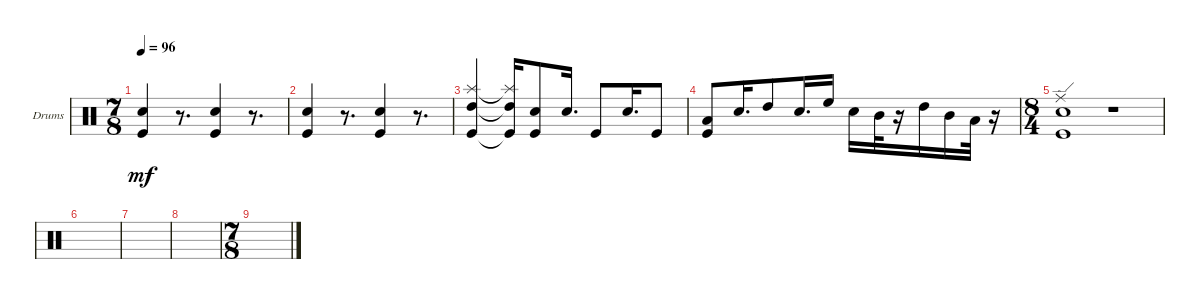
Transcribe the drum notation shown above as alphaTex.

\defaultSystemsLayout 4
\bracketExtendMode groupsimilarinstruments
\firstSystemTrackNameOrientation horizontal
\otherSystemsTrackNameOrientation horizontal
\track ("Drumkit" "Drums") {instrument percussion}
\staff {score}
\articulation defaults
\ts (7 8)
\tempo 96
\clef neutral
\ks c
("Kick (hit)" "Snare (hit) 2").4{dy mf} r.8{d} ("Kick (hit)" "Snare (hit) 2").4 r.8{d} |
("Kick (hit)" "Snare (hit) 2").4 r.8{d} ("Kick (hit)" "Snare (hit) 2").4 r.8{d} |
("Splash (hit)" "Kick (hit)" "High Tom (hit)").4 ("Splash (hit)"{t} "Kick (hit)"{t} "High Tom (hit)"{t}).16 ("Snare (hit) 2" "Kick (hit)").8 "Snare (hit) 2".16{d} "Kick (hit)".8 "Snare (hit) 2".16{d} "Kick (hit)".8 |
("Low Tom (hit)" "Kick (hit)").8 "Snare (hit) 2".16{d} "High Tom (hit)".8 "Snare (hit) 2".16{d} "High Floor Tom (hit)".16 "Snare (hit) 2".16 "Mid Tom (hit)".32 r.16 "High Tom (hit)".16 "Mid Tom (hit)".16 "Low Tom (hit)".32 r.16 |
\ts (8 4)
("Ride (edge)" "Snare (hit) 2" "Kick (hit)").1 r.1 |
|
|
|
\ts (7 8)
